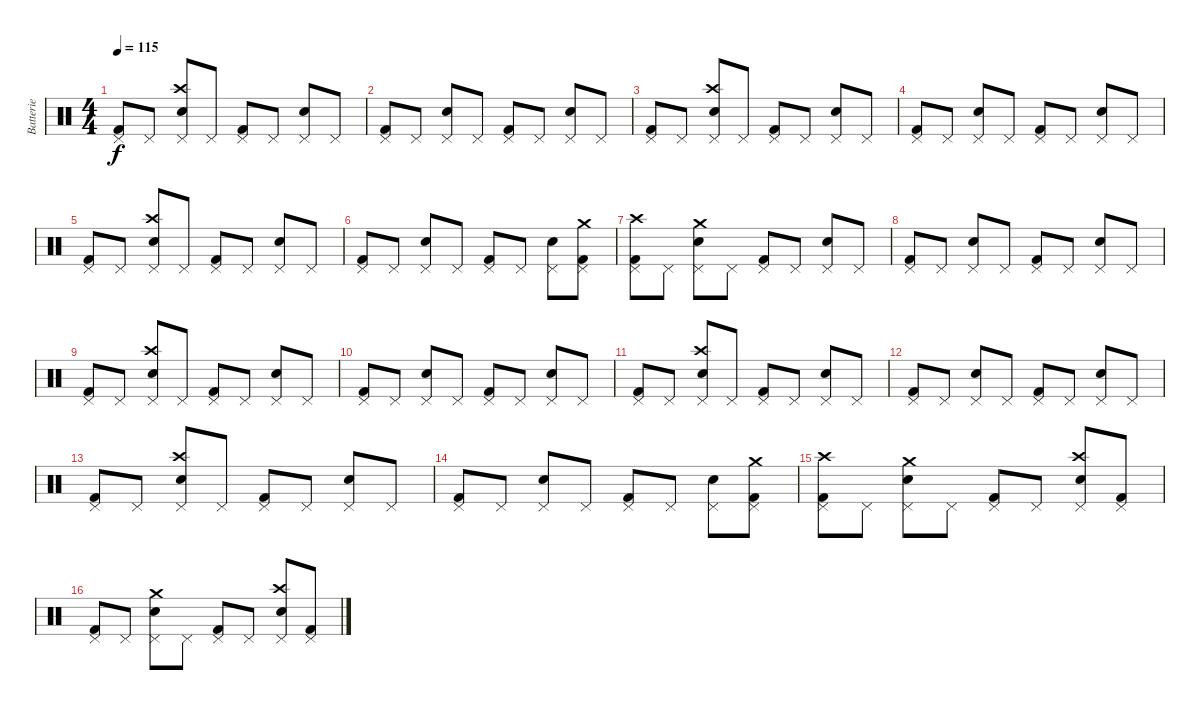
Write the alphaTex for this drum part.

\track ("Batterie" "Batterie") {instrument percussion}
\staff {score}
\articulation defaults
\ts (4 4)
\tempo 115
\clef neutral
\ks c
("Pedal Hi-Hat (hit)" "Kick (hit) 2").8{dy f} "Pedal Hi-Hat (hit)".8 ("Pedal Hi-Hat (hit)" "Crash high (hit)" "Snare (hit) 2").8 "Pedal Hi-Hat (hit)".8 ("Pedal Hi-Hat (hit)" "Kick (hit) 2").8 "Pedal Hi-Hat (hit)".8 ("Pedal Hi-Hat (hit)" "Snare (hit) 2").8 "Pedal Hi-Hat (hit)".8 |
("Pedal Hi-Hat (hit)" "Kick (hit) 2").8 "Pedal Hi-Hat (hit)".8 ("Pedal Hi-Hat (hit)" "Snare (hit) 2").8 "Pedal Hi-Hat (hit)".8 ("Pedal Hi-Hat (hit)" "Kick (hit) 2").8 "Pedal Hi-Hat (hit)".8 ("Pedal Hi-Hat (hit)" "Snare (hit) 2").8 "Pedal Hi-Hat (hit)".8 |
("Pedal Hi-Hat (hit)" "Kick (hit) 2").8 "Pedal Hi-Hat (hit)".8 ("Pedal Hi-Hat (hit)" "Crash high (hit)" "Snare (hit) 2").8 "Pedal Hi-Hat (hit)".8 ("Pedal Hi-Hat (hit)" "Kick (hit) 2").8 "Pedal Hi-Hat (hit)".8 ("Pedal Hi-Hat (hit)" "Snare (hit) 2").8 "Pedal Hi-Hat (hit)".8 |
("Pedal Hi-Hat (hit)" "Kick (hit) 2").8 "Pedal Hi-Hat (hit)".8 ("Pedal Hi-Hat (hit)" "Snare (hit) 2").8 "Pedal Hi-Hat (hit)".8 ("Pedal Hi-Hat (hit)" "Kick (hit) 2").8 "Pedal Hi-Hat (hit)".8 ("Pedal Hi-Hat (hit)" "Snare (hit) 2").8 "Pedal Hi-Hat (hit)".8 |
("Pedal Hi-Hat (hit)" "Kick (hit) 2").8 "Pedal Hi-Hat (hit)".8 ("Pedal Hi-Hat (hit)" "Crash high (hit)" "Snare (hit) 2").8 "Pedal Hi-Hat (hit)".8 ("Pedal Hi-Hat (hit)" "Kick (hit) 2").8 "Pedal Hi-Hat (hit)".8 ("Pedal Hi-Hat (hit)" "Snare (hit) 2").8 "Pedal Hi-Hat (hit)".8 |
("Pedal Hi-Hat (hit)" "Kick (hit) 2").8 "Pedal Hi-Hat (hit)".8 ("Pedal Hi-Hat (hit)" "Snare (hit) 2").8 "Pedal Hi-Hat (hit)".8 ("Pedal Hi-Hat (hit)" "Kick (hit) 2").8 "Pedal Hi-Hat (hit)".8 ("Pedal Hi-Hat (hit)" "Snare (hit) 2").8 ("Pedal Hi-Hat (hit)" "Crash medium (hit)" "Kick (hit) 2").8 |
("Pedal Hi-Hat (hit)" "Crash high (hit)" "Kick (hit) 2").8 "Pedal Hi-Hat (hit)".8 ("Pedal Hi-Hat (hit)" "Crash medium (hit)" "Snare (hit) 2").8 "Pedal Hi-Hat (hit)".8 ("Pedal Hi-Hat (hit)" "Kick (hit) 2").8 "Pedal Hi-Hat (hit)".8 ("Pedal Hi-Hat (hit)" "Snare (hit) 2").8 "Pedal Hi-Hat (hit)".8 |
("Pedal Hi-Hat (hit)" "Kick (hit) 2").8 "Pedal Hi-Hat (hit)".8 ("Pedal Hi-Hat (hit)" "Snare (hit) 2").8 "Pedal Hi-Hat (hit)".8 ("Pedal Hi-Hat (hit)" "Kick (hit) 2").8 "Pedal Hi-Hat (hit)".8 ("Pedal Hi-Hat (hit)" "Snare (hit) 2").8 "Pedal Hi-Hat (hit)".8 |
("Pedal Hi-Hat (hit)" "Kick (hit) 2").8 "Pedal Hi-Hat (hit)".8 ("Pedal Hi-Hat (hit)" "Crash high (hit)" "Snare (hit) 2").8 "Pedal Hi-Hat (hit)".8 ("Pedal Hi-Hat (hit)" "Kick (hit) 2").8 "Pedal Hi-Hat (hit)".8 ("Pedal Hi-Hat (hit)" "Snare (hit) 2").8 "Pedal Hi-Hat (hit)".8 |
("Pedal Hi-Hat (hit)" "Kick (hit) 2").8 "Pedal Hi-Hat (hit)".8 ("Pedal Hi-Hat (hit)" "Snare (hit) 2").8 "Pedal Hi-Hat (hit)".8 ("Pedal Hi-Hat (hit)" "Kick (hit) 2").8 "Pedal Hi-Hat (hit)".8 ("Pedal Hi-Hat (hit)" "Snare (hit) 2").8 "Pedal Hi-Hat (hit)".8 |
("Pedal Hi-Hat (hit)" "Kick (hit) 2").8 "Pedal Hi-Hat (hit)".8 ("Pedal Hi-Hat (hit)" "Crash high (hit)" "Snare (hit) 2").8 "Pedal Hi-Hat (hit)".8 ("Pedal Hi-Hat (hit)" "Kick (hit) 2").8 "Pedal Hi-Hat (hit)".8 ("Pedal Hi-Hat (hit)" "Snare (hit) 2").8 "Pedal Hi-Hat (hit)".8 |
("Pedal Hi-Hat (hit)" "Kick (hit) 2").8 "Pedal Hi-Hat (hit)".8 ("Pedal Hi-Hat (hit)" "Snare (hit) 2").8 "Pedal Hi-Hat (hit)".8 ("Pedal Hi-Hat (hit)" "Kick (hit) 2").8 "Pedal Hi-Hat (hit)".8 ("Pedal Hi-Hat (hit)" "Snare (hit) 2").8 "Pedal Hi-Hat (hit)".8 |
("Pedal Hi-Hat (hit)" "Kick (hit) 2").8 "Pedal Hi-Hat (hit)".8 ("Pedal Hi-Hat (hit)" "Crash high (hit)" "Snare (hit) 2").8 "Pedal Hi-Hat (hit)".8 ("Pedal Hi-Hat (hit)" "Kick (hit) 2").8 "Pedal Hi-Hat (hit)".8 ("Pedal Hi-Hat (hit)" "Snare (hit) 2").8 "Pedal Hi-Hat (hit)".8 |
("Pedal Hi-Hat (hit)" "Kick (hit) 2").8 "Pedal Hi-Hat (hit)".8 ("Pedal Hi-Hat (hit)" "Snare (hit) 2").8 "Pedal Hi-Hat (hit)".8 ("Pedal Hi-Hat (hit)" "Kick (hit) 2").8 "Pedal Hi-Hat (hit)".8 ("Pedal Hi-Hat (hit)" "Snare (hit) 2").8 ("Pedal Hi-Hat (hit)" "Crash medium (hit)" "Kick (hit) 2").8 |
("Pedal Hi-Hat (hit)" "Crash high (hit)" "Kick (hit) 2").8 "Pedal Hi-Hat (hit)".8 ("Pedal Hi-Hat (hit)" "Crash medium (hit)" "Snare (hit) 2").8 "Pedal Hi-Hat (hit)".8 ("Pedal Hi-Hat (hit)" "Kick (hit) 2").8 "Pedal Hi-Hat (hit)".8 ("Pedal Hi-Hat (hit)" "Crash high (hit)" "Snare (hit) 2").8 ("Pedal Hi-Hat (hit)" "Kick (hit) 2").8 |
("Pedal Hi-Hat (hit)" "Kick (hit) 2").8 "Pedal Hi-Hat (hit)".8 ("Pedal Hi-Hat (hit)" "Crash medium (hit)" "Snare (hit) 2").8 "Pedal Hi-Hat (hit)".8 ("Pedal Hi-Hat (hit)" "Kick (hit) 2").8 "Pedal Hi-Hat (hit)".8 ("Pedal Hi-Hat (hit)" "Crash high (hit)" "Snare (hit) 2").8 ("Pedal Hi-Hat (hit)" "Kick (hit) 2").8
